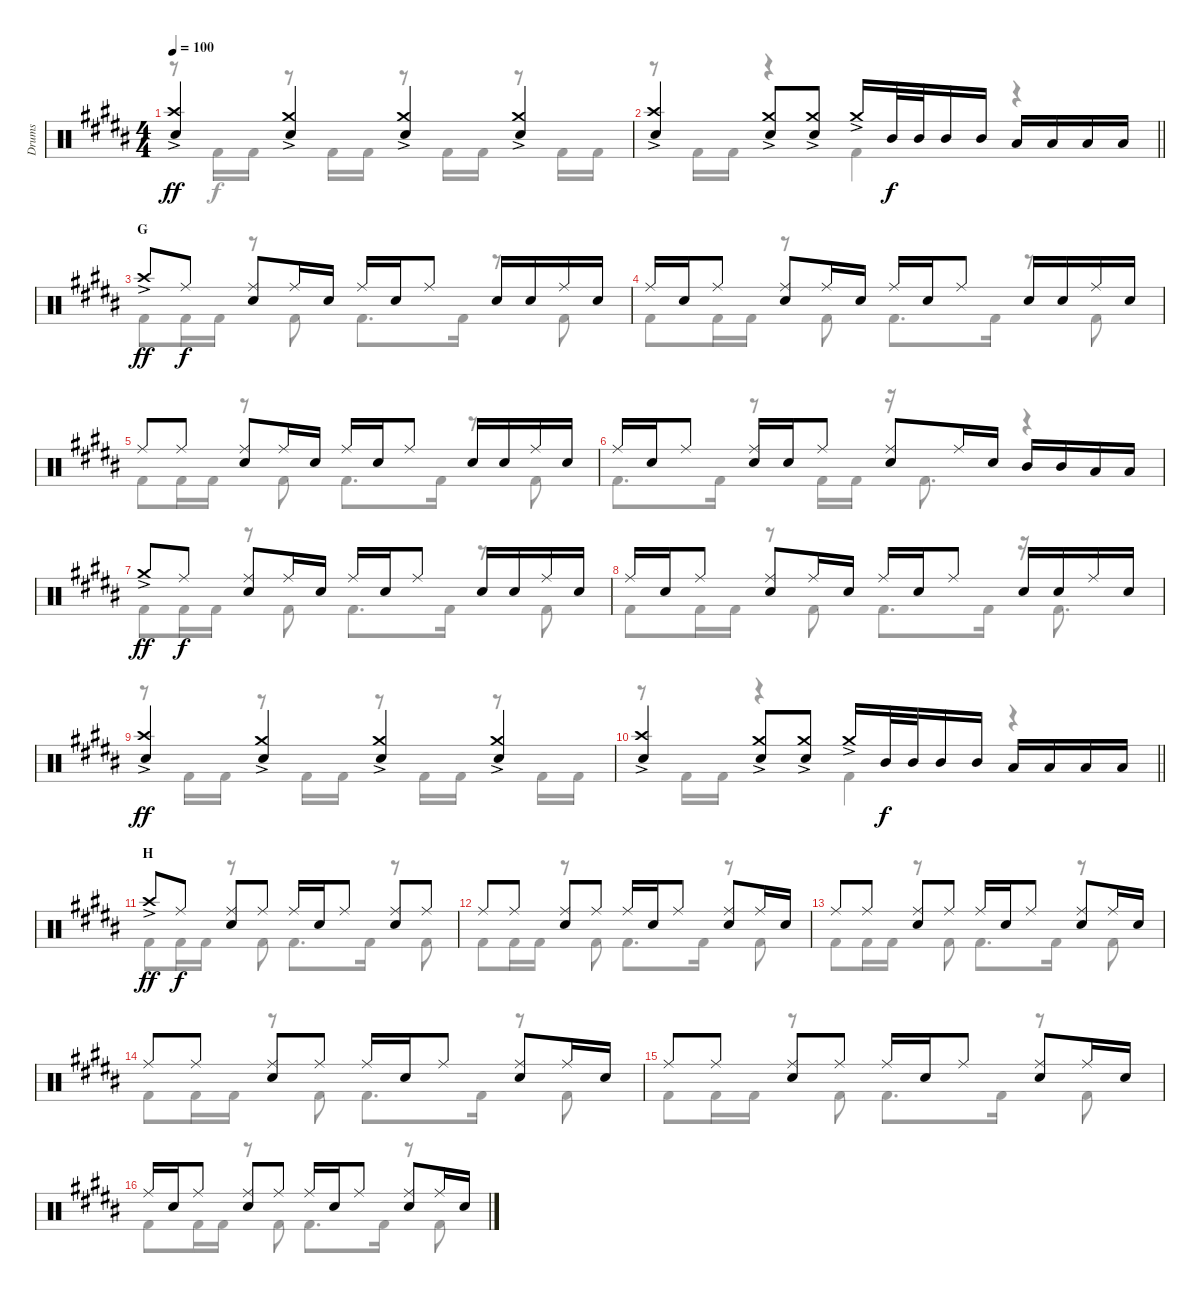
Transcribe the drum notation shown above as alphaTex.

\track ("Drums" "Drums") {instrument percussion}
\staff {score}
\articulation defaults
\voice
\ts (4 4)
\tempo 100
\clef neutral
\ks b
("Crash high (hit)"{ac} "Electric Snare (hit)").4{dy ff} ("Crash medium (hit)"{ac} "Electric Snare (hit)").4 ("Crash medium (hit)"{ac} "Electric Snare (hit)").4 ("Crash medium (hit)"{ac} "Electric Snare (hit)").4 |
\barLineRight lightlight
("Crash high (hit)"{ac} "Electric Snare (hit)").4 ("Crash medium (hit)"{ac} "Electric Snare (hit)").8 ("Crash medium (hit)"{ac} "Electric Snare (hit)").8 "Crash medium (hit)"{ac}.16 "Mid Tom (hit)".32{dy f} "Mid Tom (hit)".32 "Mid Tom (hit)".16 "Mid Tom (hit)".16 "Low Tom (hit)".16 "Low Tom (hit)".16 "Low Tom (hit)".16 "Low Tom (hit)".16 |
\section ("" "G")
"Crash high (hit)"{ac}.8{dy ff} "Ride (middle)".8{dy f} ("Ride (middle)" "Electric Snare (hit)").8 "Ride (middle)".16 "Electric Snare (hit)".16 "Ride (middle)".16 "Electric Snare (hit)".16 "Ride (middle)".8 "Electric Snare (hit)".16 "Electric Snare (hit)".16 "Ride (middle)".16 "Electric Snare (hit)".16 |
"Ride (middle)".16 "Electric Snare (hit)".16 "Ride (middle)".8 ("Ride (middle)" "Electric Snare (hit)").8 "Ride (middle)".16 "Electric Snare (hit)".16 "Ride (middle)".16 "Electric Snare (hit)".16 "Ride (middle)".8 "Electric Snare (hit)".16 "Electric Snare (hit)".16 "Ride (middle)".16 "Electric Snare (hit)".16 |
"Ride (middle)".8 "Ride (middle)".8 ("Ride (middle)" "Electric Snare (hit)").8 "Ride (middle)".16 "Electric Snare (hit)".16 "Ride (middle)".16 "Electric Snare (hit)".16 "Ride (middle)".8 "Electric Snare (hit)".16 "Electric Snare (hit)".16 "Ride (middle)".16 "Electric Snare (hit)".16 |
"Ride (middle)".16 "Electric Snare (hit)".16 "Ride (middle)".8 ("Ride (middle)" "Electric Snare (hit)").16 "Electric Snare (hit)".16 "Ride (middle)".8 ("Ride (middle)" "Electric Snare (hit)").8 "Ride (middle)".16 "Electric Snare (hit)".16 "Mid Tom (hit)".16 "Mid Tom (hit)".16 "Low Tom (hit)".16 "Low Tom (hit)".16 |
"Crash medium (hit)"{ac}.8{dy ff} "Ride (middle)".8{dy f} ("Ride (middle)" "Electric Snare (hit)").8 "Ride (middle)".16 "Electric Snare (hit)".16 "Ride (middle)".16 "Electric Snare (hit)".16 "Ride (middle)".8 "Electric Snare (hit)".16 "Electric Snare (hit)".16 "Ride (middle)".16 "Electric Snare (hit)".16 |
"Ride (middle)".16 "Electric Snare (hit)".16 "Ride (middle)".8 ("Ride (middle)" "Electric Snare (hit)").8 "Ride (middle)".16 "Electric Snare (hit)".16 "Ride (middle)".16 "Electric Snare (hit)".16 "Ride (middle)".8 "Electric Snare (hit)".16 "Electric Snare (hit)".16 "Ride (middle)".16 "Electric Snare (hit)".16 |
("Crash high (hit)"{ac} "Electric Snare (hit)").4{dy ff} ("Crash medium (hit)"{ac} "Electric Snare (hit)").4 ("Crash medium (hit)"{ac} "Electric Snare (hit)").4 ("Crash medium (hit)"{ac} "Electric Snare (hit)").4 |
\barLineRight lightlight
("Crash high (hit)"{ac} "Electric Snare (hit)").4 ("Crash medium (hit)"{ac} "Electric Snare (hit)").8 ("Crash medium (hit)"{ac} "Electric Snare (hit)").8 "Crash medium (hit)"{ac}.16 "Mid Tom (hit)".32{dy f} "Mid Tom (hit)".32 "Mid Tom (hit)".16 "Mid Tom (hit)".16 "Low Tom (hit)".16 "Low Tom (hit)".16 "Low Tom (hit)".16 "Low Tom (hit)".16 |
\section ("" "H")
"Crash high (hit)"{ac}.8{dy ff} "Ride (middle)".8{dy f} ("Ride (middle)" "Electric Snare (hit)").8 "Ride (middle)".8 "Ride (middle)".16 "Electric Snare (hit)".16 "Ride (middle)".8 ("Ride (middle)" "Electric Snare (hit)").8 "Ride (middle)".8 |
"Ride (middle)".8 "Ride (middle)".8 ("Ride (middle)" "Electric Snare (hit)").8 "Ride (middle)".8 "Ride (middle)".16 "Electric Snare (hit)".16 "Ride (middle)".8 ("Ride (middle)" "Electric Snare (hit)").8 "Ride (middle)".16 "Electric Snare (hit)".16 |
"Ride (middle)".8 "Ride (middle)".8 ("Ride (middle)" "Electric Snare (hit)").8 "Ride (middle)".8 "Ride (middle)".16 "Electric Snare (hit)".16 "Ride (middle)".8 ("Ride (middle)" "Electric Snare (hit)").8 "Ride (middle)".16 "Electric Snare (hit)".16 |
"Ride (middle)".8 "Ride (middle)".8 ("Ride (middle)" "Electric Snare (hit)").8 "Ride (middle)".8 "Ride (middle)".16 "Electric Snare (hit)".16 "Ride (middle)".8 ("Ride (middle)" "Electric Snare (hit)").8 "Ride (middle)".16 "Electric Snare (hit)".16 |
"Ride (middle)".8 "Ride (middle)".8 ("Ride (middle)" "Electric Snare (hit)").8 "Ride (middle)".8 "Ride (middle)".16 "Electric Snare (hit)".16 "Ride (middle)".8 ("Ride (middle)" "Electric Snare (hit)").8 "Ride (middle)".16 "Electric Snare (hit)".16 |
"Ride (middle)".16 "Electric Snare (hit)".16 "Ride (middle)".8 ("Ride (middle)" "Electric Snare (hit)").8 "Ride (middle)".8 "Ride (middle)".16 "Electric Snare (hit)".16 "Ride (middle)".8 ("Ride (middle)" "Electric Snare (hit)").8 "Ride (middle)".16 "Electric Snare (hit)".16
\voice
\clef neutral
\ottava regular
\simile none
\ks b
r.8{dy f} "Kick (hit) 2".16 "Kick (hit) 2".16 r.8 "Kick (hit) 2".16 "Kick (hit) 2".16 r.8 "Kick (hit) 2".16 "Kick (hit) 2".16 r.8 "Kick (hit) 2".16 "Kick (hit) 2".16 |
\barLineRight lightlight
r.8 "Kick (hit) 2".16 "Kick (hit) 2".16 r.4 "Kick (hit) 2".4 r.4 |
"Kick (hit) 2".8 "Kick (hit) 2".16 "Kick (hit) 2".16 r.8 "Kick (hit) 2".8 "Kick (hit) 2".8{d} "Kick (hit) 2".16 r.8 "Kick (hit) 2".8 |
"Kick (hit) 2".8 "Kick (hit) 2".16 "Kick (hit) 2".16 r.8 "Kick (hit) 2".8 "Kick (hit) 2".8{d} "Kick (hit) 2".16 r.8 "Kick (hit) 2".8 |
"Kick (hit) 2".8 "Kick (hit) 2".16 "Kick (hit) 2".16 r.8 "Kick (hit) 2".8 "Kick (hit) 2".8{d} "Kick (hit) 2".16 r.8 "Kick (hit) 2".8 |
"Kick (hit) 2".8{d} "Kick (hit) 2".16 r.8 "Kick (hit) 2".16 "Kick (hit) 2".16 r.16 "Kick (hit) 2".8{d} r.4 |
"Kick (hit) 2".8 "Kick (hit) 2".16 "Kick (hit) 2".16 r.8 "Kick (hit) 2".8 "Kick (hit) 2".8{d} "Kick (hit) 2".16 r.8 "Kick (hit) 2".8 |
"Kick (hit) 2".8 "Kick (hit) 2".16 "Kick (hit) 2".16 r.8 "Kick (hit) 2".8 "Kick (hit) 2".8{d} "Kick (hit) 2".16 r.16 "Kick (hit) 2".8{d} |
r.8 "Kick (hit) 2".16 "Kick (hit) 2".16 r.8 "Kick (hit) 2".16 "Kick (hit) 2".16 r.8 "Kick (hit) 2".16 "Kick (hit) 2".16 r.8 "Kick (hit) 2".16 "Kick (hit) 2".16 |
\barLineRight lightlight
r.8 "Kick (hit) 2".16 "Kick (hit) 2".16 r.4 "Kick (hit) 2".4 r.4 |
"Kick (hit) 2".8 "Kick (hit) 2".16 "Kick (hit) 2".16 r.8 "Kick (hit) 2".8 "Kick (hit) 2".8{d} "Kick (hit) 2".16 r.8 "Kick (hit) 2".8 |
"Kick (hit) 2".8 "Kick (hit) 2".16 "Kick (hit) 2".16 r.8 "Kick (hit) 2".8 "Kick (hit) 2".8{d} "Kick (hit) 2".16 r.8 "Kick (hit) 2".8 |
"Kick (hit) 2".8 "Kick (hit) 2".16 "Kick (hit) 2".16 r.8 "Kick (hit) 2".8 "Kick (hit) 2".8{d} "Kick (hit) 2".16 r.8 "Kick (hit) 2".8 |
"Kick (hit) 2".8 "Kick (hit) 2".16 "Kick (hit) 2".16 r.8 "Kick (hit) 2".8 "Kick (hit) 2".8{d} "Kick (hit) 2".16 r.8 "Kick (hit) 2".8 |
"Kick (hit) 2".8 "Kick (hit) 2".16 "Kick (hit) 2".16 r.8 "Kick (hit) 2".8 "Kick (hit) 2".8{d} "Kick (hit) 2".16 r.8 "Kick (hit) 2".8 |
"Kick (hit) 2".8 "Kick (hit) 2".16 "Kick (hit) 2".16 r.8 "Kick (hit) 2".8 "Kick (hit) 2".8{d} "Kick (hit) 2".16 r.8 "Kick (hit) 2".8
